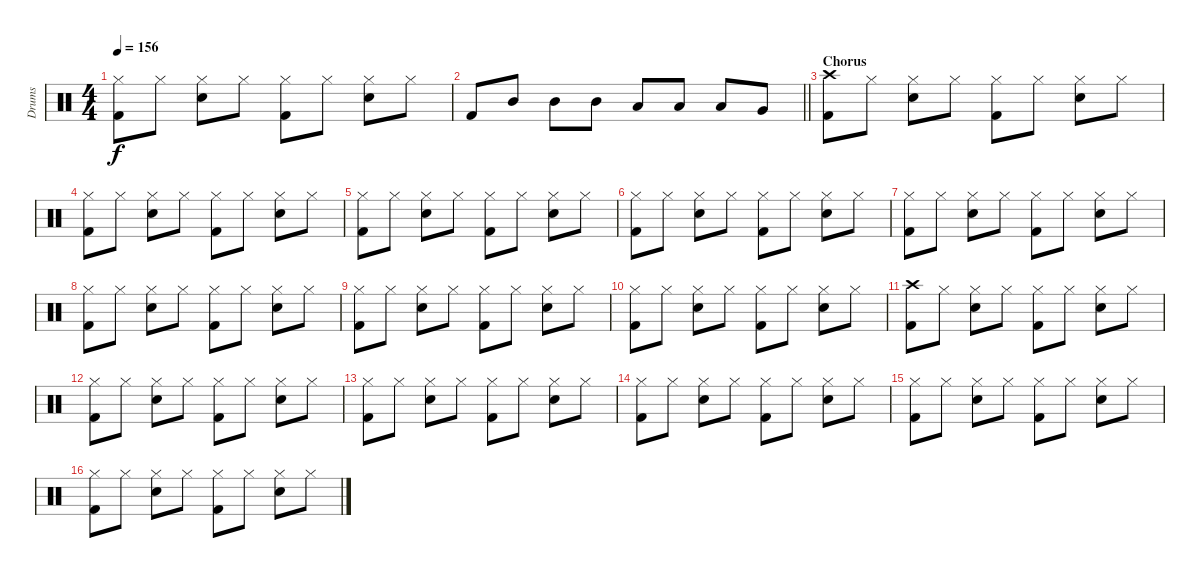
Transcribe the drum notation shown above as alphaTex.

\track ("Drums" "Drums") {instrument percussion}
\staff {score}
\articulation defaults
\ts (4 4)
\tempo 156
\clef neutral
\ks c
("Hi-Hat (closed)" "Kick (hit) 2").8{dy f} "Hi-Hat (closed)".8 ("Hi-Hat (closed)" "Electric Snare (hit)").8 "Hi-Hat (closed)".8 ("Hi-Hat (closed)" "Kick (hit) 2").8 "Hi-Hat (closed)".8 ("Hi-Hat (closed)" "Electric Snare (hit)").8 "Hi-Hat (closed)".8 |
\barLineRight lightlight "Kick (hit) 2".8 "Mid Tom (hit)".8 "Mid Tom (hit)".8 "Mid Tom (hit)".8 "Low Tom (hit)".8 "Low Tom (hit)".8 "Low Tom (hit)".8 "Very Low Tom (hit)".8
|
\section ("" "Chorus")
("Crash high (hit)" "Kick (hit) 2").8 "Hi-Hat (closed)".8 ("Hi-Hat (closed)" "Electric Snare (hit)").8 "Hi-Hat (closed)".8 ("Hi-Hat (closed)" "Kick (hit) 2").8 "Hi-Hat (closed)".8 ("Hi-Hat (closed)" "Electric Snare (hit)").8 "Hi-Hat (closed)".8 |
("Hi-Hat (closed)" "Kick (hit) 2").8 "Hi-Hat (closed)".8 ("Hi-Hat (closed)" "Electric Snare (hit)").8 "Hi-Hat (closed)".8 ("Hi-Hat (closed)" "Kick (hit) 2").8 "Hi-Hat (closed)".8 ("Hi-Hat (closed)" "Electric Snare (hit)").8 "Hi-Hat (closed)".8 |
("Hi-Hat (closed)" "Kick (hit) 2").8 "Hi-Hat (closed)".8 ("Hi-Hat (closed)" "Electric Snare (hit)").8 "Hi-Hat (closed)".8 ("Hi-Hat (closed)" "Kick (hit) 2").8 "Hi-Hat (closed)".8 ("Hi-Hat (closed)" "Electric Snare (hit)").8 "Hi-Hat (closed)".8 |
("Hi-Hat (closed)" "Kick (hit) 2").8 "Hi-Hat (closed)".8 ("Hi-Hat (closed)" "Electric Snare (hit)").8 "Hi-Hat (closed)".8 ("Hi-Hat (closed)" "Kick (hit) 2").8 "Hi-Hat (closed)".8 ("Hi-Hat (closed)" "Electric Snare (hit)").8 "Hi-Hat (closed)".8 |
("Hi-Hat (closed)" "Kick (hit) 2").8 "Hi-Hat (closed)".8 ("Hi-Hat (closed)" "Electric Snare (hit)").8 "Hi-Hat (closed)".8 ("Hi-Hat (closed)" "Kick (hit) 2").8 "Hi-Hat (closed)".8 ("Hi-Hat (closed)" "Electric Snare (hit)").8 "Hi-Hat (closed)".8 |
("Hi-Hat (closed)" "Kick (hit) 2").8 "Hi-Hat (closed)".8 ("Hi-Hat (closed)" "Electric Snare (hit)").8 "Hi-Hat (closed)".8 ("Hi-Hat (closed)" "Kick (hit) 2").8 "Hi-Hat (closed)".8 ("Hi-Hat (closed)" "Electric Snare (hit)").8 "Hi-Hat (closed)".8 |
("Hi-Hat (closed)" "Kick (hit) 2").8 "Hi-Hat (closed)".8 ("Hi-Hat (closed)" "Electric Snare (hit)").8 "Hi-Hat (closed)".8 ("Hi-Hat (closed)" "Kick (hit) 2").8 "Hi-Hat (closed)".8 ("Hi-Hat (closed)" "Electric Snare (hit)").8 "Hi-Hat (closed)".8 |
("Hi-Hat (closed)" "Kick (hit) 2").8 "Hi-Hat (closed)".8 ("Hi-Hat (closed)" "Electric Snare (hit)").8 "Hi-Hat (closed)".8 ("Hi-Hat (closed)" "Kick (hit) 2").8 "Hi-Hat (closed)".8 ("Hi-Hat (closed)" "Electric Snare (hit)").8 "Hi-Hat (closed)".8 |
("Crash high (hit)" "Kick (hit) 2").8 "Hi-Hat (closed)".8 ("Hi-Hat (closed)" "Electric Snare (hit)").8 "Hi-Hat (closed)".8 ("Hi-Hat (closed)" "Kick (hit) 2").8 "Hi-Hat (closed)".8 ("Hi-Hat (closed)" "Electric Snare (hit)").8 "Hi-Hat (closed)".8 |
("Hi-Hat (closed)" "Kick (hit) 2").8 "Hi-Hat (closed)".8 ("Hi-Hat (closed)" "Electric Snare (hit)").8 "Hi-Hat (closed)".8 ("Hi-Hat (closed)" "Kick (hit) 2").8 "Hi-Hat (closed)".8 ("Hi-Hat (closed)" "Electric Snare (hit)").8 "Hi-Hat (closed)".8 |
("Hi-Hat (closed)" "Kick (hit) 2").8 "Hi-Hat (closed)".8 ("Hi-Hat (closed)" "Electric Snare (hit)").8 "Hi-Hat (closed)".8 ("Hi-Hat (closed)" "Kick (hit) 2").8 "Hi-Hat (closed)".8 ("Hi-Hat (closed)" "Electric Snare (hit)").8 "Hi-Hat (closed)".8 |
("Hi-Hat (closed)" "Kick (hit) 2").8 "Hi-Hat (closed)".8 ("Hi-Hat (closed)" "Electric Snare (hit)").8 "Hi-Hat (closed)".8 ("Hi-Hat (closed)" "Kick (hit) 2").8 "Hi-Hat (closed)".8 ("Hi-Hat (closed)" "Electric Snare (hit)").8 "Hi-Hat (closed)".8 |
("Hi-Hat (closed)" "Kick (hit) 2").8 "Hi-Hat (closed)".8 ("Hi-Hat (closed)" "Electric Snare (hit)").8 "Hi-Hat (closed)".8 ("Hi-Hat (closed)" "Kick (hit) 2").8 "Hi-Hat (closed)".8 ("Hi-Hat (closed)" "Electric Snare (hit)").8 "Hi-Hat (closed)".8 |
("Hi-Hat (closed)" "Kick (hit) 2").8 "Hi-Hat (closed)".8 ("Hi-Hat (closed)" "Electric Snare (hit)").8 "Hi-Hat (closed)".8 ("Hi-Hat (closed)" "Kick (hit) 2").8 "Hi-Hat (closed)".8 ("Hi-Hat (closed)" "Electric Snare (hit)").8 "Hi-Hat (closed)".8
